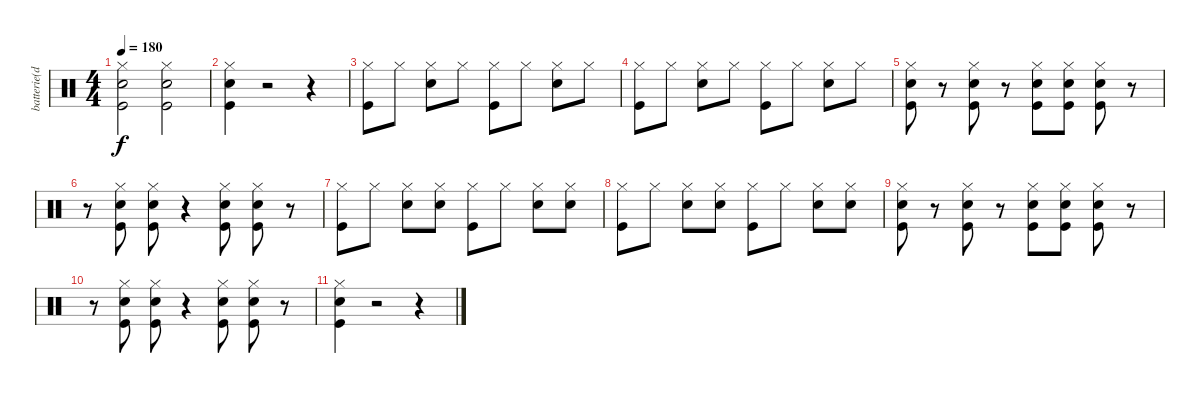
\track ("batterie(dave)" "batterie(d") {instrument percussion}
\staff {score}
\articulation defaults
\ts (4 4)
\tempo 180
\clef neutral
\ks c
("Hi-Hat (closed)" "Snare (hit) 2" "Kick (hit)").2{dy f} ("Hi-Hat (closed)" "Snare (hit) 2" "Kick (hit)").2 |
("Hi-Hat (closed)" "Snare (hit) 2" "Kick (hit)").4 r.2 r.4 |
("Hi-Hat (closed)" "Kick (hit)").8 "Hi-Hat (closed)".8 ("Hi-Hat (closed)" "Snare (hit) 2").8 "Hi-Hat (closed)".8 ("Hi-Hat (closed)" "Kick (hit)").8 "Hi-Hat (closed)".8 ("Hi-Hat (closed)" "Snare (hit) 2").8 "Hi-Hat (closed)".8 |
("Hi-Hat (closed)" "Kick (hit)").8 "Hi-Hat (closed)".8 ("Hi-Hat (closed)" "Snare (hit) 2").8 "Hi-Hat (closed)".8 ("Hi-Hat (closed)" "Kick (hit)").8 "Hi-Hat (closed)".8 ("Hi-Hat (closed)" "Snare (hit) 2").8 "Hi-Hat (closed)".8 |
("Hi-Hat (closed)" "Snare (hit) 2" "Kick (hit)").8 r.8 ("Hi-Hat (closed)" "Snare (hit) 2" "Kick (hit)").8 r.8 ("Hi-Hat (closed)" "Snare (hit) 2" "Kick (hit)").8 ("Hi-Hat (closed)" "Snare (hit) 2" "Kick (hit)").8 ("Hi-Hat (closed)" "Snare (hit) 2" "Kick (hit)").8 r.8 |
r.8 ("Hi-Hat (closed)" "Snare (hit) 2" "Kick (hit)").8 ("Hi-Hat (closed)" "Snare (hit) 2" "Kick (hit)").8 r.4 ("Hi-Hat (closed)" "Snare (hit) 2" "Kick (hit)").8 ("Hi-Hat (closed)" "Snare (hit) 2" "Kick (hit)").8 r.8 |
("Hi-Hat (closed)" "Kick (hit)").8 "Hi-Hat (closed)".8 ("Hi-Hat (closed)" "Snare (hit) 2").8 ("Hi-Hat (closed)" "Snare (hit) 2").8 ("Hi-Hat (closed)" "Kick (hit)").8 "Hi-Hat (closed)".8 ("Hi-Hat (closed)" "Snare (hit) 2").8 ("Hi-Hat (closed)" "Snare (hit) 2").8 |
("Hi-Hat (closed)" "Kick (hit)").8 "Hi-Hat (closed)".8 ("Hi-Hat (closed)" "Snare (hit) 2").8 ("Hi-Hat (closed)" "Snare (hit) 2").8 ("Hi-Hat (closed)" "Kick (hit)").8 "Hi-Hat (closed)".8 ("Hi-Hat (closed)" "Snare (hit) 2").8 ("Hi-Hat (closed)" "Snare (hit) 2").8 |
("Hi-Hat (closed)" "Snare (hit) 2" "Kick (hit)").8 r.8 ("Hi-Hat (closed)" "Snare (hit) 2" "Kick (hit)").8 r.8 ("Hi-Hat (closed)" "Snare (hit) 2" "Kick (hit)").8 ("Hi-Hat (closed)" "Snare (hit) 2" "Kick (hit)").8 ("Hi-Hat (closed)" "Snare (hit) 2" "Kick (hit)").8 r.8 |
r.8 ("Hi-Hat (closed)" "Snare (hit) 2" "Kick (hit)").8 ("Hi-Hat (closed)" "Snare (hit) 2" "Kick (hit)").8 r.4 ("Hi-Hat (closed)" "Snare (hit) 2" "Kick (hit)").8 ("Hi-Hat (closed)" "Snare (hit) 2" "Kick (hit)").8 r.8 |
("Hi-Hat (closed)" "Snare (hit) 2" "Kick (hit)").4 r.2 r.4
